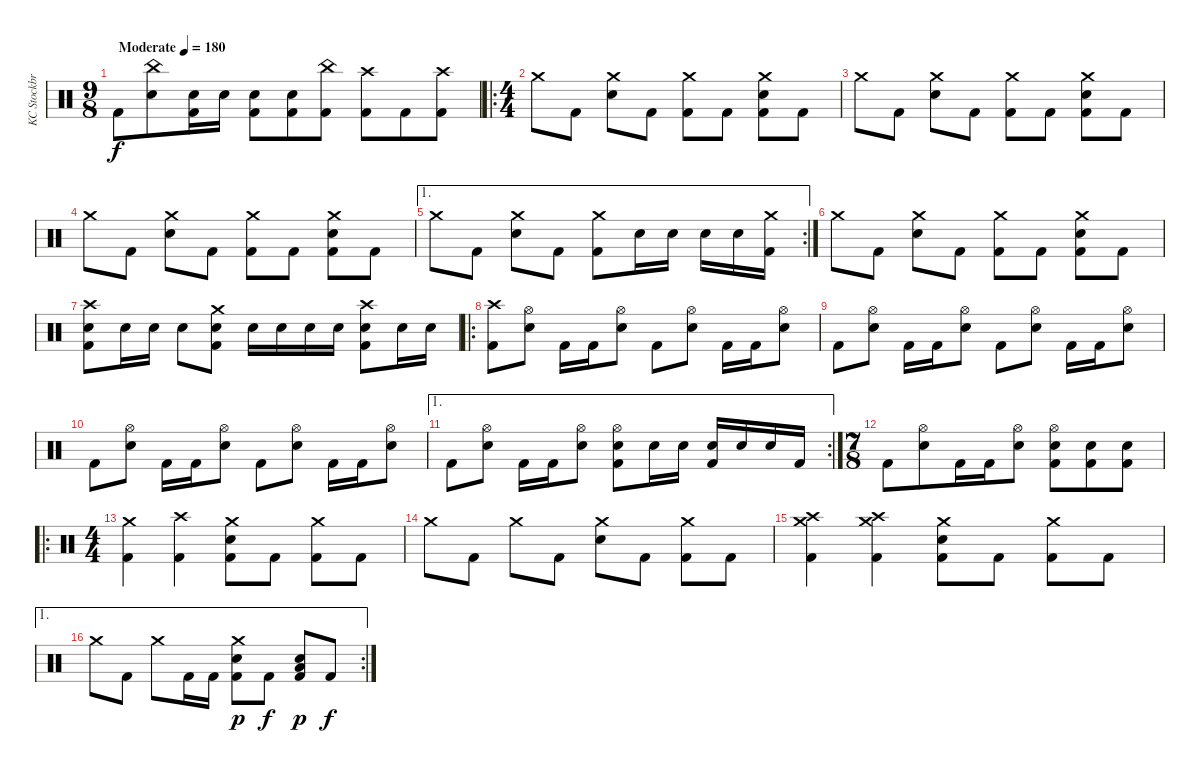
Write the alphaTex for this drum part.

\track ("KC Stockbridge" "KC Stockbr") {instrument percussion}
\staff {score}
\articulation defaults
\ts (9 8)
\tempo (180 "Moderate")
\clef neutral
\ks c "Kick (hit) 2".8{dy f}
("China (hit)" "Electric Snare (hit)").8 ("Electric Snare (hit)" "Kick (hit) 2").16 "Electric Snare (hit)".16 ("Electric Snare (hit)" "Kick (hit) 2").8 ("Electric Snare (hit)" "Kick (hit) 2").8 ("China (hit)" "Kick (hit) 2").8 ("Crash high (hit)" "Kick (hit) 2").8 "Kick (hit) 2".8 ("Crash high (hit)" "Kick (hit) 2").8 |
\ro
\ts (4 4)
"Crash medium (hit)".8 "Kick (hit) 2".8 ("Crash medium (hit)" "Electric Snare (hit)").8 "Kick (hit) 2".8 ("Crash medium (hit)" "Kick (hit) 2").8 "Kick (hit) 2".8 ("Crash medium (hit)" "Electric Snare (hit)" "Kick (hit) 2").8 "Kick (hit) 2".8 |
"Crash medium (hit)".8 "Kick (hit) 2".8 ("Crash medium (hit)" "Electric Snare (hit)").8 "Kick (hit) 2".8 ("Crash medium (hit)" "Kick (hit) 2").8 "Kick (hit) 2".8 ("Crash medium (hit)" "Electric Snare (hit)" "Kick (hit) 2").8 "Kick (hit) 2".8 |
"Crash medium (hit)".8 "Kick (hit) 2".8 ("Crash medium (hit)" "Electric Snare (hit)").8 "Kick (hit) 2".8 ("Crash medium (hit)" "Kick (hit) 2").8 "Kick (hit) 2".8 ("Crash medium (hit)" "Electric Snare (hit)" "Kick (hit) 2").8 "Kick (hit) 2".8 |
\ae 1
\rc 2 "Crash medium (hit)".8 "Kick (hit) 2".8
("Crash medium (hit)" "Electric Snare (hit)").8 "Kick (hit) 2".8 ("Crash medium (hit)" "Kick (hit) 2").8 "Electric Snare (hit)".16 "Electric Snare (hit)".16 "Electric Snare (hit)".16 "Electric Snare (hit)".16 ("Crash medium (hit)" "Kick (hit) 2").16 |
"Crash medium (hit)".8 "Kick (hit) 2".8 ("Crash medium (hit)" "Electric Snare (hit)").8 "Kick (hit) 2".8 ("Crash medium (hit)" "Kick (hit) 2").8 "Kick (hit) 2".8 ("Crash medium (hit)" "Electric Snare (hit)" "Kick (hit) 2").8 "Kick (hit) 2".8 |
("Crash high (hit)" "Electric Snare (hit)" "Kick (hit) 2").8 "Electric Snare (hit)".16 "Electric Snare (hit)".16 "Electric Snare (hit)".8 ("Crash medium (hit)" "Electric Snare (hit)" "Kick (hit) 2").8 "Electric Snare (hit)".16 "Electric Snare (hit)".16 "Electric Snare (hit)".16 "Electric Snare (hit)".16 ("Crash high (hit)" "Electric Snare (hit)" "Kick (hit) 2").8 "Electric Snare (hit)".16 "Electric Snare (hit)".16 |
\ro
("Crash high (hit)" "Kick (hit) 2").8 ("Hi-Hat (open)" "Electric Snare (hit)").8 "Kick (hit) 2".16 "Kick (hit) 2".16 ("Hi-Hat (open)" "Electric Snare (hit)").8 "Kick (hit) 2".8 ("Hi-Hat (open)" "Electric Snare (hit)").8 "Kick (hit) 2".16 "Kick (hit) 2".16 ("Hi-Hat (open)" "Electric Snare (hit)").8 |
"Kick (hit) 2".8 ("Hi-Hat (open)" "Electric Snare (hit)").8 "Kick (hit) 2".16 "Kick (hit) 2".16 ("Hi-Hat (open)" "Electric Snare (hit)").8 "Kick (hit) 2".8 ("Hi-Hat (open)" "Electric Snare (hit)").8 "Kick (hit) 2".16 "Kick (hit) 2".16 ("Hi-Hat (open)" "Electric Snare (hit)").8 |
"Kick (hit) 2".8 ("Hi-Hat (open)" "Electric Snare (hit)").8 "Kick (hit) 2".16 "Kick (hit) 2".16 ("Hi-Hat (open)" "Electric Snare (hit)").8 "Kick (hit) 2".8 ("Hi-Hat (open)" "Electric Snare (hit)").8 "Kick (hit) 2".16 "Kick (hit) 2".16 ("Hi-Hat (open)" "Electric Snare (hit)").8 |
\ae 1
\rc 2 "Kick (hit) 2".8
("Hi-Hat (open)" "Electric Snare (hit)").8 "Kick (hit) 2".16 "Kick (hit) 2".16 ("Hi-Hat (open)" "Electric Snare (hit)").8 ("Hi-Hat (open)" "Electric Snare (hit)" "Kick (hit) 2").8 "Electric Snare (hit)".16 "Electric Snare (hit)".16 ("Electric Snare (hit)" "Kick (hit) 2").16 "Electric Snare (hit)".16 "Electric Snare (hit)".16 "Kick (hit) 2".16 |
\ts (7 8)
"Kick (hit) 2".8 ("Hi-Hat (open)" "Electric Snare (hit)").8 "Kick (hit) 2".16 "Kick (hit) 2".16 ("Hi-Hat (open)" "Electric Snare (hit)").8 ("Hi-Hat (open)" "Electric Snare (hit)" "Kick (hit) 2").8 ("Electric Snare (hit)" "Kick (hit) 2").8 ("Electric Snare (hit)" "Kick (hit) 2").8 |
\ro
\ts (4 4)
("Crash medium (hit)" "Kick (hit) 2").4 ("Crash high (hit)" "Kick (hit) 2").4 ("Crash medium (hit)" "Electric Snare (hit)" "Kick (hit) 2").8 "Kick (hit) 2".8 ("Crash medium (hit)" "Kick (hit) 2").8 "Kick (hit) 2".8 |
"Crash medium (hit)".8 "Kick (hit) 2".8 "Crash medium (hit)".8 "Kick (hit) 2".8 ("Crash medium (hit)" "Electric Snare (hit)").8 "Kick (hit) 2".8 ("Crash medium (hit)" "Kick (hit) 2").8 "Kick (hit) 2".8 |
("Crash medium (hit)" "Crash high (hit)" "Kick (hit) 2").4 ("Crash medium (hit)" "Crash high (hit)" "Kick (hit) 2").4 ("Crash medium (hit)" "Electric Snare (hit)" "Kick (hit) 2").8 "Kick (hit) 2".8 ("Crash medium (hit)" "Kick (hit) 2").8 "Kick (hit) 2".8 |
\ae 1
\rc 2 "Crash medium (hit)".8 "Kick (hit) 2".8 "Crash medium (hit)".8 "Kick (hit) 2".16 "Kick (hit) 2".16
("Crash medium (hit)" "Electric Snare (hit)" "Kick (hit) 2").8{dy p} "Kick (hit) 2".8{dy f} ("Low Tom (hit)" "Electric Snare (hit)" "Kick (hit) 2").8{dy p} "Kick (hit) 2".8{dy f}
